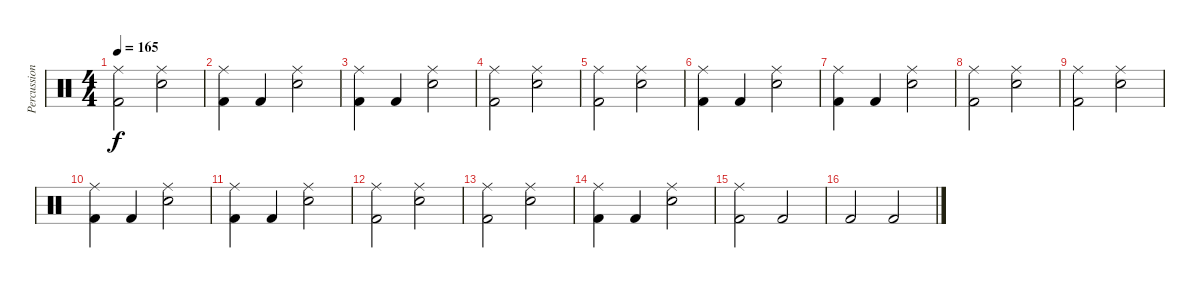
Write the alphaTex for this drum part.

\track ("Percussion" "Percussion") {instrument percussion}
\staff {score}
\articulation defaults
\ts (4 4)
\tempo 165
\clef neutral
\ks c
("Ride (middle)" "Kick (hit) 2").2{dy f} ("Ride (middle)" "Snare (hit) 2").2 |
("Ride (middle)" "Kick (hit) 2").4 "Kick (hit) 2".4 ("Ride (middle)" "Snare (hit) 2").2 |
("Ride (middle)" "Kick (hit) 2").4 "Kick (hit) 2".4 ("Ride (middle)" "Snare (hit) 2").2 |
("Ride (middle)" "Kick (hit) 2").2 ("Ride (middle)" "Snare (hit) 2").2 |
("Ride (middle)" "Kick (hit) 2").2 ("Ride (middle)" "Snare (hit) 2").2 |
("Ride (middle)" "Kick (hit) 2").4 "Kick (hit) 2".4 ("Ride (middle)" "Snare (hit) 2").2 |
("Ride (middle)" "Kick (hit) 2").4 "Kick (hit) 2".4 ("Ride (middle)" "Snare (hit) 2").2 |
("Ride (middle)" "Kick (hit) 2").2 ("Ride (middle)" "Snare (hit) 2").2 |
("Ride (middle)" "Kick (hit) 2").2 ("Ride (middle)" "Snare (hit) 2").2 |
("Ride (middle)" "Kick (hit) 2").4 "Kick (hit) 2".4 ("Ride (middle)" "Snare (hit) 2").2 |
("Ride (middle)" "Kick (hit) 2").4 "Kick (hit) 2".4 ("Ride (middle)" "Snare (hit) 2").2 |
("Ride (middle)" "Kick (hit) 2").2 ("Ride (middle)" "Snare (hit) 2").2 |
("Ride (middle)" "Kick (hit) 2").2 ("Ride (middle)" "Snare (hit) 2").2 |
("Ride (middle)" "Kick (hit) 2").4 "Kick (hit) 2".4 ("Ride (middle)" "Snare (hit) 2").2 |
("Ride (middle)" "Kick (hit) 2").2 "Kick (hit) 2".2 |
"Kick (hit) 2".2 "Kick (hit) 2".2
